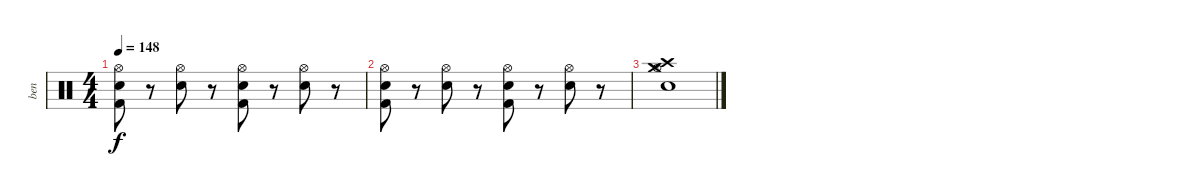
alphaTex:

\track ("ben" "ben") {instrument percussion}
\staff {score}
\articulation defaults
\ts (4 4)
\tempo 148
\clef neutral
\ks c
("Hi-Hat (open)" "Snare (hit) 2" "Kick (hit) 2").8{dy f} r.8 ("Hi-Hat (open)" "Snare (hit) 2").8 r.8 ("Hi-Hat (open)" "Snare (hit) 2" "Kick (hit) 2").8 r.8 ("Hi-Hat (open)" "Snare (hit) 2").8 r.8 |
("Hi-Hat (open)" "Snare (hit) 2" "Kick (hit) 2").8 r.8 ("Hi-Hat (open)" "Snare (hit) 2").8 r.8 ("Hi-Hat (open)" "Snare (hit) 2" "Kick (hit) 2").8 r.8 ("Hi-Hat (open)" "Snare (hit) 2").8 r.8 |
("Electric Snare (hit)" "Crash high (hit)" "Hi-Hat (open)" "Crash medium (hit)").1
